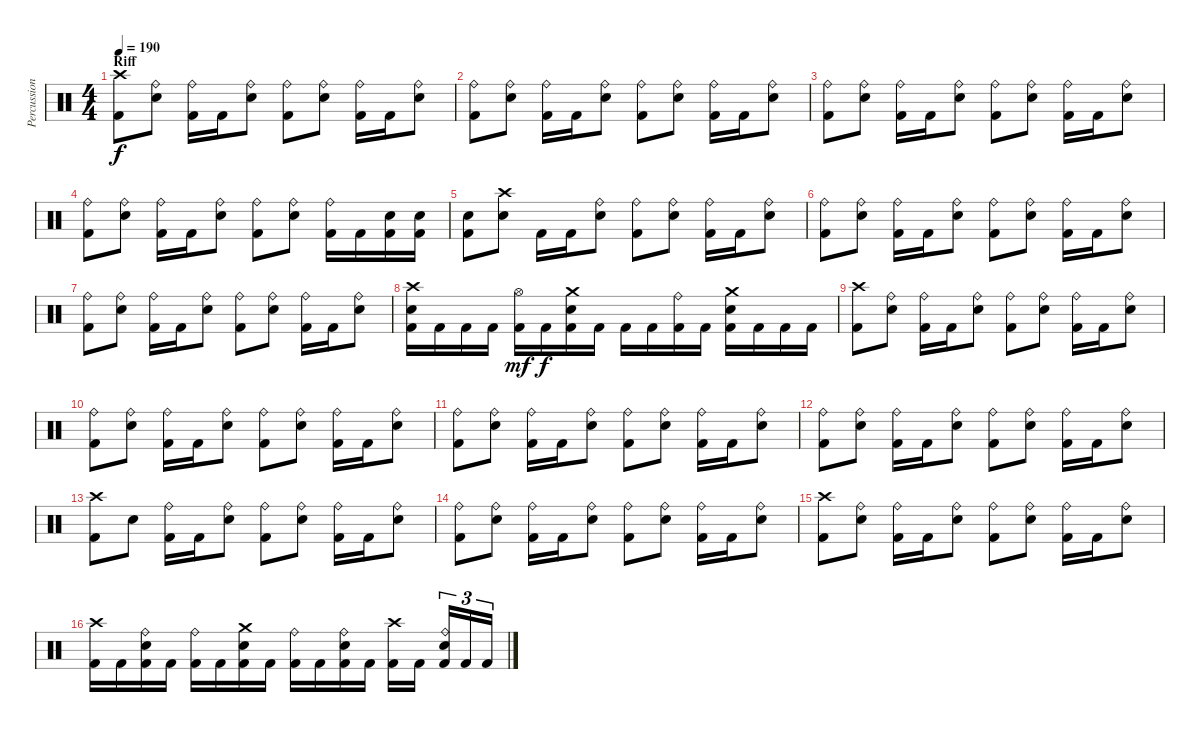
\track ("Percussion" "Percussion") {instrument percussion}
\staff {score}
\articulation defaults
\ts (4 4)
\section ("" "Riff")
\tempo 190
\clef neutral
\ks c
("Crash high (hit)" "Kick (hit) 2").8{dy f} ("Ride (bell)" "Snare (hit) 2").8 ("Ride (bell)" "Kick (hit) 2").16 "Kick (hit) 2".16 ("Ride (bell)" "Snare (hit) 2").8 ("Ride (bell)" "Kick (hit) 2").8 ("Ride (bell)" "Snare (hit) 2").8 ("Ride (bell)" "Kick (hit) 2").16 "Kick (hit) 2".16 ("Ride (bell)" "Snare (hit) 2").8 |
("Ride (bell)" "Kick (hit) 2").8 ("Ride (bell)" "Snare (hit) 2").8 ("Ride (bell)" "Kick (hit) 2").16 "Kick (hit) 2".16 ("Ride (bell)" "Snare (hit) 2").8 ("Ride (bell)" "Kick (hit) 2").8 ("Ride (bell)" "Snare (hit) 2").8 ("Ride (bell)" "Kick (hit) 2").16 "Kick (hit) 2".16 ("Ride (bell)" "Snare (hit) 2").8 |
("Ride (bell)" "Kick (hit) 2").8 ("Ride (bell)" "Snare (hit) 2").8 ("Ride (bell)" "Kick (hit) 2").16 "Kick (hit) 2".16 ("Ride (bell)" "Snare (hit) 2").8 ("Ride (bell)" "Kick (hit) 2").8 ("Ride (bell)" "Snare (hit) 2").8 ("Ride (bell)" "Kick (hit) 2").16 "Kick (hit) 2".16 ("Ride (bell)" "Snare (hit) 2").8 |
("Ride (bell)" "Kick (hit) 2").8 ("Ride (bell)" "Snare (hit) 2").8 ("Ride (bell)" "Kick (hit) 2").16 "Kick (hit) 2".16 ("Ride (bell)" "Snare (hit) 2").8 ("Ride (bell)" "Kick (hit) 2").8 ("Ride (bell)" "Snare (hit) 2").8 ("Ride (bell)" "Kick (hit) 2").16 "Kick (hit) 2".16 ("Snare (hit) 2" "Kick (hit) 2").16 ("Snare (hit) 2" "Kick (hit) 2").16 |
("Snare (hit) 2" "Kick (hit) 2").8 ("Crash high (hit)" "Snare (hit) 2").8 "Kick (hit) 2".16 "Kick (hit) 2".16 ("Ride (bell)" "Snare (hit) 2").8 ("Ride (bell)" "Kick (hit) 2").8 ("Ride (bell)" "Snare (hit) 2").8 ("Ride (bell)" "Kick (hit) 2").16 "Kick (hit) 2".16 ("Ride (bell)" "Snare (hit) 2").8 |
("Ride (bell)" "Kick (hit) 2").8 ("Ride (bell)" "Snare (hit) 2").8 ("Ride (bell)" "Kick (hit) 2").16 "Kick (hit) 2".16 ("Ride (bell)" "Snare (hit) 2").8 ("Ride (bell)" "Kick (hit) 2").8 ("Ride (bell)" "Snare (hit) 2").8 ("Ride (bell)" "Kick (hit) 2").16 "Kick (hit) 2".16 ("Ride (bell)" "Snare (hit) 2").8 |
("Ride (bell)" "Kick (hit) 2").8 ("Ride (bell)" "Snare (hit) 2").8 ("Ride (bell)" "Kick (hit) 2").16 "Kick (hit) 2".16 ("Ride (bell)" "Snare (hit) 2").8 ("Ride (bell)" "Kick (hit) 2").8 ("Ride (bell)" "Snare (hit) 2").8 ("Ride (bell)" "Kick (hit) 2").16 "Kick (hit) 2".16 ("Ride (bell)" "Snare (hit) 2").8 |
("Crash high (hit)" "Snare (hit) 2" "Kick (hit) 2").16 "Kick (hit) 2".16 "Kick (hit) 2".16 "Kick (hit) 2".16 ("Hi-Hat (open)" "Kick (hit) 2").16{dy mf} "Kick (hit) 2".16{dy f} ("Crash medium (hit)" "Snare (hit) 2" "Kick (hit) 2").16 "Kick (hit) 2".16 "Kick (hit) 2".16 "Kick (hit) 2".16 ("Ride (bell)" "Kick (hit) 2").16 "Kick (hit) 2".16 ("Crash medium (hit)" "Snare (hit) 2" "Kick (hit) 2").16 "Kick (hit) 2".16 "Kick (hit) 2".16 "Kick (hit) 2".16 |
("Crash high (hit)" "Kick (hit) 2").8 ("Ride (bell)" "Snare (hit) 2").8 ("Ride (bell)" "Kick (hit) 2").16 "Kick (hit) 2".16 ("Ride (bell)" "Snare (hit) 2").8 ("Ride (bell)" "Kick (hit) 2").8 ("Ride (bell)" "Snare (hit) 2").8 ("Ride (bell)" "Kick (hit) 2").16 "Kick (hit) 2".16 ("Ride (bell)" "Snare (hit) 2").8 |
("Ride (bell)" "Kick (hit) 2").8 ("Ride (bell)" "Snare (hit) 2").8 ("Ride (bell)" "Kick (hit) 2").16 "Kick (hit) 2".16 ("Ride (bell)" "Snare (hit) 2").8 ("Ride (bell)" "Kick (hit) 2").8 ("Ride (bell)" "Snare (hit) 2").8 ("Ride (bell)" "Kick (hit) 2").16 "Kick (hit) 2".16 ("Ride (bell)" "Snare (hit) 2").8 |
("Ride (bell)" "Kick (hit) 2").8 ("Ride (bell)" "Snare (hit) 2").8 ("Ride (bell)" "Kick (hit) 2").16 "Kick (hit) 2".16 ("Ride (bell)" "Snare (hit) 2").8 ("Ride (bell)" "Kick (hit) 2").8 ("Ride (bell)" "Snare (hit) 2").8 ("Ride (bell)" "Kick (hit) 2").16 "Kick (hit) 2".16 ("Ride (bell)" "Snare (hit) 2").8 |
("Ride (bell)" "Kick (hit) 2").8 ("Ride (bell)" "Snare (hit) 2").8 ("Ride (bell)" "Kick (hit) 2").16 "Kick (hit) 2".16 ("Ride (bell)" "Snare (hit) 2").8 ("Ride (bell)" "Kick (hit) 2").8 ("Ride (bell)" "Snare (hit) 2").8 ("Ride (bell)" "Kick (hit) 2").16 "Kick (hit) 2".16 ("Ride (bell)" "Snare (hit) 2").8 |
("Crash high (hit)" "Kick (hit) 2").8 "Snare (hit) 2".8 ("Ride (bell)" "Kick (hit) 2").16 "Kick (hit) 2".16 ("Ride (bell)" "Snare (hit) 2").8 ("Ride (bell)" "Kick (hit) 2").8 ("Ride (bell)" "Snare (hit) 2").8 ("Ride (bell)" "Kick (hit) 2").16 "Kick (hit) 2".16 ("Ride (bell)" "Snare (hit) 2").8 |
("Ride (bell)" "Kick (hit) 2").8 ("Ride (bell)" "Snare (hit) 2").8 ("Ride (bell)" "Kick (hit) 2").16 "Kick (hit) 2".16 ("Ride (bell)" "Snare (hit) 2").8 ("Ride (bell)" "Kick (hit) 2").8 ("Ride (bell)" "Snare (hit) 2").8 ("Ride (bell)" "Kick (hit) 2").16 "Kick (hit) 2".16 ("Ride (bell)" "Snare (hit) 2").8 |
("Crash high (hit)" "Kick (hit) 2").8 ("Ride (bell)" "Snare (hit) 2").8 ("Ride (bell)" "Kick (hit) 2").16 "Kick (hit) 2".16 ("Ride (bell)" "Snare (hit) 2").8 ("Ride (bell)" "Kick (hit) 2").8 ("Ride (bell)" "Snare (hit) 2").8 ("Ride (bell)" "Kick (hit) 2").16 "Kick (hit) 2".16 ("Ride (bell)" "Snare (hit) 2").8 |
("Crash high (hit)" "Kick (hit) 2").16 "Kick (hit) 2".16 ("Ride (bell)" "Snare (hit) 2" "Kick (hit) 2").16 "Kick (hit) 2".16 ("Ride (bell)" "Kick (hit) 2").16 "Kick (hit) 2".16 ("Crash medium (hit)" "Snare (hit) 2" "Kick (hit) 2").16 "Kick (hit) 2".16 ("Ride (bell)" "Kick (hit) 2").16 "Kick (hit) 2".16 ("Ride (bell)" "Snare (hit) 2" "Kick (hit) 2").16 "Kick (hit) 2".16 ("Crash high (hit)" "Kick (hit) 2").16 "Kick (hit) 2".16 ("Ride (bell)" "Snare (hit) 2" "Kick (hit) 2").16{tu (3 2)} "Kick (hit) 2".16{tu (3 2)} "Kick (hit) 2".16{tu (3 2)}
